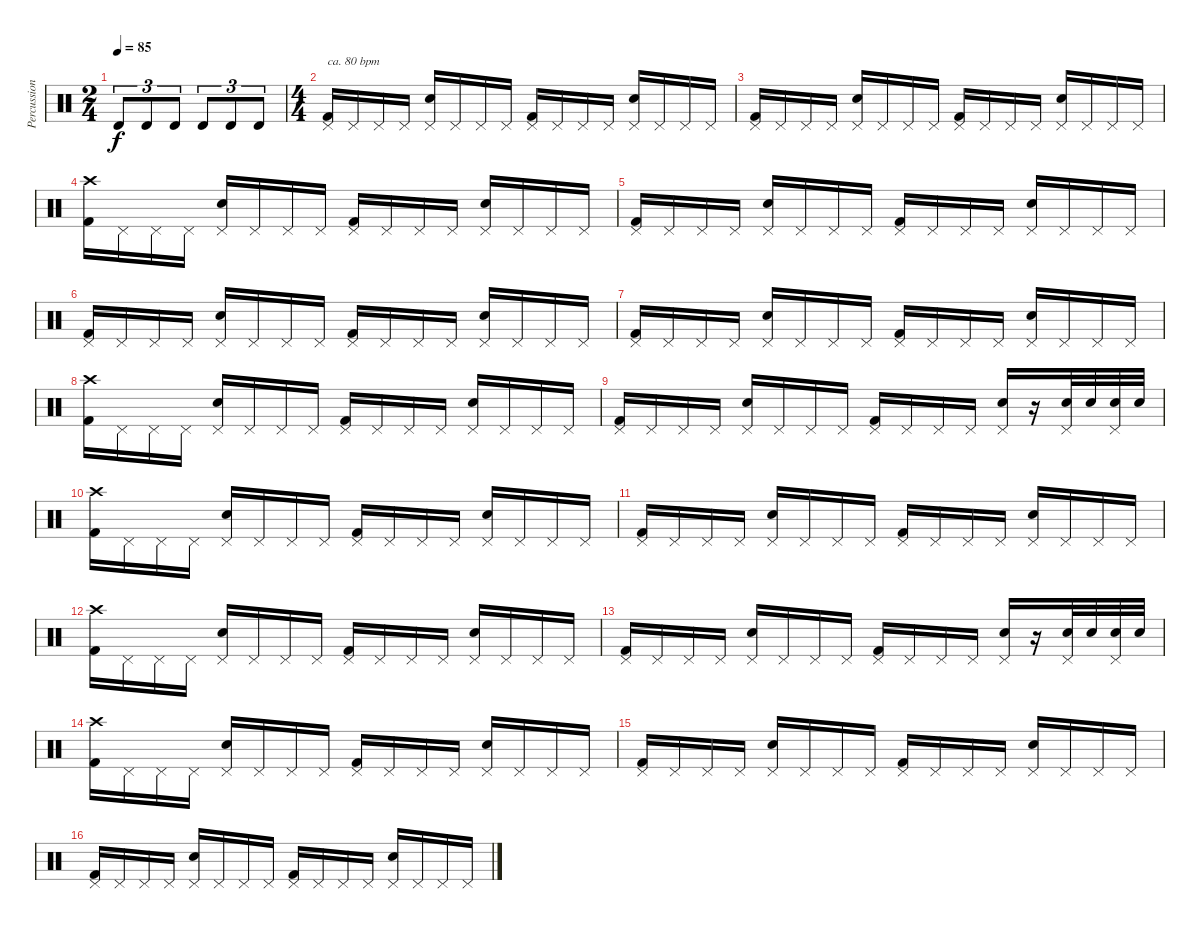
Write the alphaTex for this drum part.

\track ("Percussions" "Percussion") {instrument percussion}
\staff {score}
\articulation defaults
\ts (2 4)
\tempo 85
\tempo 80
\tempo 85
\clef neutral
\ks c "Timbale high (hit)".8{tu (3 2) dy f} "Timbale high (hit)".8{tu (3 2)} "Timbale high (hit)".8{tu (3 2)} "Timbale high (hit)".8{tu (3 2)} "Timbale high (hit)".8{tu (3 2)} "Timbale high (hit)".8{tu (3 2)}
|
\ts (4 4)
("Pedal Hi-Hat (hit)" "Kick (hit) 2").16{txt "ca. 80 bpm"} "Pedal Hi-Hat (hit)".16 "Pedal Hi-Hat (hit)".16 "Pedal Hi-Hat (hit)".16 ("Pedal Hi-Hat (hit)" "Snare (hit) 2").16 "Pedal Hi-Hat (hit)".16 "Pedal Hi-Hat (hit)".16 "Pedal Hi-Hat (hit)".16 ("Pedal Hi-Hat (hit)" "Kick (hit) 2").16 "Pedal Hi-Hat (hit)".16 "Pedal Hi-Hat (hit)".16 "Pedal Hi-Hat (hit)".16 ("Pedal Hi-Hat (hit)" "Snare (hit) 2").16 "Pedal Hi-Hat (hit)".16 "Pedal Hi-Hat (hit)".16 "Pedal Hi-Hat (hit)".16 |
("Pedal Hi-Hat (hit)" "Kick (hit) 2").16 "Pedal Hi-Hat (hit)".16 "Pedal Hi-Hat (hit)".16 "Pedal Hi-Hat (hit)".16 ("Pedal Hi-Hat (hit)" "Snare (hit) 2").16 "Pedal Hi-Hat (hit)".16 "Pedal Hi-Hat (hit)".16 "Pedal Hi-Hat (hit)".16 ("Pedal Hi-Hat (hit)" "Kick (hit) 2").16 "Pedal Hi-Hat (hit)".16 "Pedal Hi-Hat (hit)".16 "Pedal Hi-Hat (hit)".16 ("Pedal Hi-Hat (hit)" "Snare (hit) 2").16 "Pedal Hi-Hat (hit)".16 "Pedal Hi-Hat (hit)".16 "Pedal Hi-Hat (hit)".16 |
("Crash high (hit)" "Kick (hit) 2").16 "Pedal Hi-Hat (hit)".16 "Pedal Hi-Hat (hit)".16 "Pedal Hi-Hat (hit)".16 ("Pedal Hi-Hat (hit)" "Snare (hit) 2").16 "Pedal Hi-Hat (hit)".16 "Pedal Hi-Hat (hit)".16 "Pedal Hi-Hat (hit)".16 ("Pedal Hi-Hat (hit)" "Kick (hit) 2").16 "Pedal Hi-Hat (hit)".16 "Pedal Hi-Hat (hit)".16 "Pedal Hi-Hat (hit)".16 ("Pedal Hi-Hat (hit)" "Snare (hit) 2").16 "Pedal Hi-Hat (hit)".16 "Pedal Hi-Hat (hit)".16 "Pedal Hi-Hat (hit)".16 |
("Pedal Hi-Hat (hit)" "Kick (hit) 2").16 "Pedal Hi-Hat (hit)".16 "Pedal Hi-Hat (hit)".16 "Pedal Hi-Hat (hit)".16 ("Pedal Hi-Hat (hit)" "Snare (hit) 2").16 "Pedal Hi-Hat (hit)".16 "Pedal Hi-Hat (hit)".16 "Pedal Hi-Hat (hit)".16 ("Pedal Hi-Hat (hit)" "Kick (hit) 2").16 "Pedal Hi-Hat (hit)".16 "Pedal Hi-Hat (hit)".16 "Pedal Hi-Hat (hit)".16 ("Pedal Hi-Hat (hit)" "Snare (hit) 2").16 "Pedal Hi-Hat (hit)".16 "Pedal Hi-Hat (hit)".16 "Pedal Hi-Hat (hit)".16 |
("Pedal Hi-Hat (hit)" "Kick (hit) 2").16 "Pedal Hi-Hat (hit)".16 "Pedal Hi-Hat (hit)".16 "Pedal Hi-Hat (hit)".16 ("Pedal Hi-Hat (hit)" "Snare (hit) 2").16 "Pedal Hi-Hat (hit)".16 "Pedal Hi-Hat (hit)".16 "Pedal Hi-Hat (hit)".16 ("Pedal Hi-Hat (hit)" "Kick (hit) 2").16 "Pedal Hi-Hat (hit)".16 "Pedal Hi-Hat (hit)".16 "Pedal Hi-Hat (hit)".16 ("Pedal Hi-Hat (hit)" "Snare (hit) 2").16 "Pedal Hi-Hat (hit)".16 "Pedal Hi-Hat (hit)".16 "Pedal Hi-Hat (hit)".16 |
("Pedal Hi-Hat (hit)" "Kick (hit) 2").16 "Pedal Hi-Hat (hit)".16 "Pedal Hi-Hat (hit)".16 "Pedal Hi-Hat (hit)".16 ("Pedal Hi-Hat (hit)" "Snare (hit) 2").16 "Pedal Hi-Hat (hit)".16 "Pedal Hi-Hat (hit)".16 "Pedal Hi-Hat (hit)".16 ("Pedal Hi-Hat (hit)" "Kick (hit) 2").16 "Pedal Hi-Hat (hit)".16 "Pedal Hi-Hat (hit)".16 "Pedal Hi-Hat (hit)".16 ("Pedal Hi-Hat (hit)" "Snare (hit) 2").16 "Pedal Hi-Hat (hit)".16 "Pedal Hi-Hat (hit)".16 "Pedal Hi-Hat (hit)".16 |
("Crash high (hit)" "Kick (hit) 2").16 "Pedal Hi-Hat (hit)".16 "Pedal Hi-Hat (hit)".16 "Pedal Hi-Hat (hit)".16 ("Pedal Hi-Hat (hit)" "Snare (hit) 2").16 "Pedal Hi-Hat (hit)".16 "Pedal Hi-Hat (hit)".16 "Pedal Hi-Hat (hit)".16 ("Pedal Hi-Hat (hit)" "Kick (hit) 2").16 "Pedal Hi-Hat (hit)".16 "Pedal Hi-Hat (hit)".16 "Pedal Hi-Hat (hit)".16 ("Pedal Hi-Hat (hit)" "Snare (hit) 2").16 "Pedal Hi-Hat (hit)".16 "Pedal Hi-Hat (hit)".16 "Pedal Hi-Hat (hit)".16 |
("Pedal Hi-Hat (hit)" "Kick (hit) 2").16 "Pedal Hi-Hat (hit)".16 "Pedal Hi-Hat (hit)".16 "Pedal Hi-Hat (hit)".16 ("Pedal Hi-Hat (hit)" "Snare (hit) 2").16 "Pedal Hi-Hat (hit)".16 "Pedal Hi-Hat (hit)".16 "Pedal Hi-Hat (hit)".16 ("Pedal Hi-Hat (hit)" "Kick (hit) 2").16 "Pedal Hi-Hat (hit)".16 "Pedal Hi-Hat (hit)".16 "Pedal Hi-Hat (hit)".16 ("Pedal Hi-Hat (hit)" "Snare (hit) 2").16 r.16 ("Pedal Hi-Hat (hit)" "Snare (hit) 2").32 "Snare (hit) 2".32 ("Pedal Hi-Hat (hit)" "Snare (hit) 2").32 "Snare (hit) 2".32 |
("Crash high (hit)" "Kick (hit) 2").16 "Pedal Hi-Hat (hit)".16 "Pedal Hi-Hat (hit)".16 "Pedal Hi-Hat (hit)".16 ("Pedal Hi-Hat (hit)" "Snare (hit) 2").16 "Pedal Hi-Hat (hit)".16 "Pedal Hi-Hat (hit)".16 "Pedal Hi-Hat (hit)".16 ("Pedal Hi-Hat (hit)" "Kick (hit) 2").16 "Pedal Hi-Hat (hit)".16 "Pedal Hi-Hat (hit)".16 "Pedal Hi-Hat (hit)".16 ("Pedal Hi-Hat (hit)" "Snare (hit) 2").16 "Pedal Hi-Hat (hit)".16 "Pedal Hi-Hat (hit)".16 "Pedal Hi-Hat (hit)".16 |
("Pedal Hi-Hat (hit)" "Kick (hit) 2").16 "Pedal Hi-Hat (hit)".16 "Pedal Hi-Hat (hit)".16 "Pedal Hi-Hat (hit)".16 ("Pedal Hi-Hat (hit)" "Snare (hit) 2").16 "Pedal Hi-Hat (hit)".16 "Pedal Hi-Hat (hit)".16 "Pedal Hi-Hat (hit)".16 ("Pedal Hi-Hat (hit)" "Kick (hit) 2").16 "Pedal Hi-Hat (hit)".16 "Pedal Hi-Hat (hit)".16 "Pedal Hi-Hat (hit)".16 ("Pedal Hi-Hat (hit)" "Snare (hit) 2").16 "Pedal Hi-Hat (hit)".16 "Pedal Hi-Hat (hit)".16 "Pedal Hi-Hat (hit)".16 |
("Crash high (hit)" "Kick (hit) 2").16 "Pedal Hi-Hat (hit)".16 "Pedal Hi-Hat (hit)".16 "Pedal Hi-Hat (hit)".16 ("Pedal Hi-Hat (hit)" "Snare (hit) 2").16 "Pedal Hi-Hat (hit)".16 "Pedal Hi-Hat (hit)".16 "Pedal Hi-Hat (hit)".16 ("Pedal Hi-Hat (hit)" "Kick (hit) 2").16 "Pedal Hi-Hat (hit)".16 "Pedal Hi-Hat (hit)".16 "Pedal Hi-Hat (hit)".16 ("Pedal Hi-Hat (hit)" "Snare (hit) 2").16 "Pedal Hi-Hat (hit)".16 "Pedal Hi-Hat (hit)".16 "Pedal Hi-Hat (hit)".16 |
("Pedal Hi-Hat (hit)" "Kick (hit) 2").16 "Pedal Hi-Hat (hit)".16 "Pedal Hi-Hat (hit)".16 "Pedal Hi-Hat (hit)".16 ("Pedal Hi-Hat (hit)" "Snare (hit) 2").16 "Pedal Hi-Hat (hit)".16 "Pedal Hi-Hat (hit)".16 "Pedal Hi-Hat (hit)".16 ("Pedal Hi-Hat (hit)" "Kick (hit) 2").16 "Pedal Hi-Hat (hit)".16 "Pedal Hi-Hat (hit)".16 "Pedal Hi-Hat (hit)".16 ("Pedal Hi-Hat (hit)" "Snare (hit) 2").16 r.16 ("Pedal Hi-Hat (hit)" "Snare (hit) 2").32 "Snare (hit) 2".32 ("Pedal Hi-Hat (hit)" "Snare (hit) 2").32 "Snare (hit) 2".32 |
("Crash high (hit)" "Kick (hit) 2").16 "Pedal Hi-Hat (hit)".16 "Pedal Hi-Hat (hit)".16 "Pedal Hi-Hat (hit)".16 ("Pedal Hi-Hat (hit)" "Snare (hit) 2").16 "Pedal Hi-Hat (hit)".16 "Pedal Hi-Hat (hit)".16 "Pedal Hi-Hat (hit)".16 ("Pedal Hi-Hat (hit)" "Kick (hit) 2").16 "Pedal Hi-Hat (hit)".16 "Pedal Hi-Hat (hit)".16 "Pedal Hi-Hat (hit)".16 ("Pedal Hi-Hat (hit)" "Snare (hit) 2").16 "Pedal Hi-Hat (hit)".16 "Pedal Hi-Hat (hit)".16 "Pedal Hi-Hat (hit)".16 |
("Pedal Hi-Hat (hit)" "Kick (hit) 2").16 "Pedal Hi-Hat (hit)".16 "Pedal Hi-Hat (hit)".16 "Pedal Hi-Hat (hit)".16 ("Pedal Hi-Hat (hit)" "Snare (hit) 2").16 "Pedal Hi-Hat (hit)".16 "Pedal Hi-Hat (hit)".16 "Pedal Hi-Hat (hit)".16 ("Pedal Hi-Hat (hit)" "Kick (hit) 2").16 "Pedal Hi-Hat (hit)".16 "Pedal Hi-Hat (hit)".16 "Pedal Hi-Hat (hit)".16 ("Pedal Hi-Hat (hit)" "Snare (hit) 2").16 "Pedal Hi-Hat (hit)".16 "Pedal Hi-Hat (hit)".16 "Pedal Hi-Hat (hit)".16 |
("Pedal Hi-Hat (hit)" "Kick (hit) 2").16 "Pedal Hi-Hat (hit)".16 "Pedal Hi-Hat (hit)".16 "Pedal Hi-Hat (hit)".16 ("Pedal Hi-Hat (hit)" "Snare (hit) 2").16 "Pedal Hi-Hat (hit)".16 "Pedal Hi-Hat (hit)".16 "Pedal Hi-Hat (hit)".16 ("Pedal Hi-Hat (hit)" "Kick (hit) 2").16 "Pedal Hi-Hat (hit)".16 "Pedal Hi-Hat (hit)".16 "Pedal Hi-Hat (hit)".16 ("Pedal Hi-Hat (hit)" "Snare (hit) 2").16 "Pedal Hi-Hat (hit)".16 "Pedal Hi-Hat (hit)".16 "Pedal Hi-Hat (hit)".16
